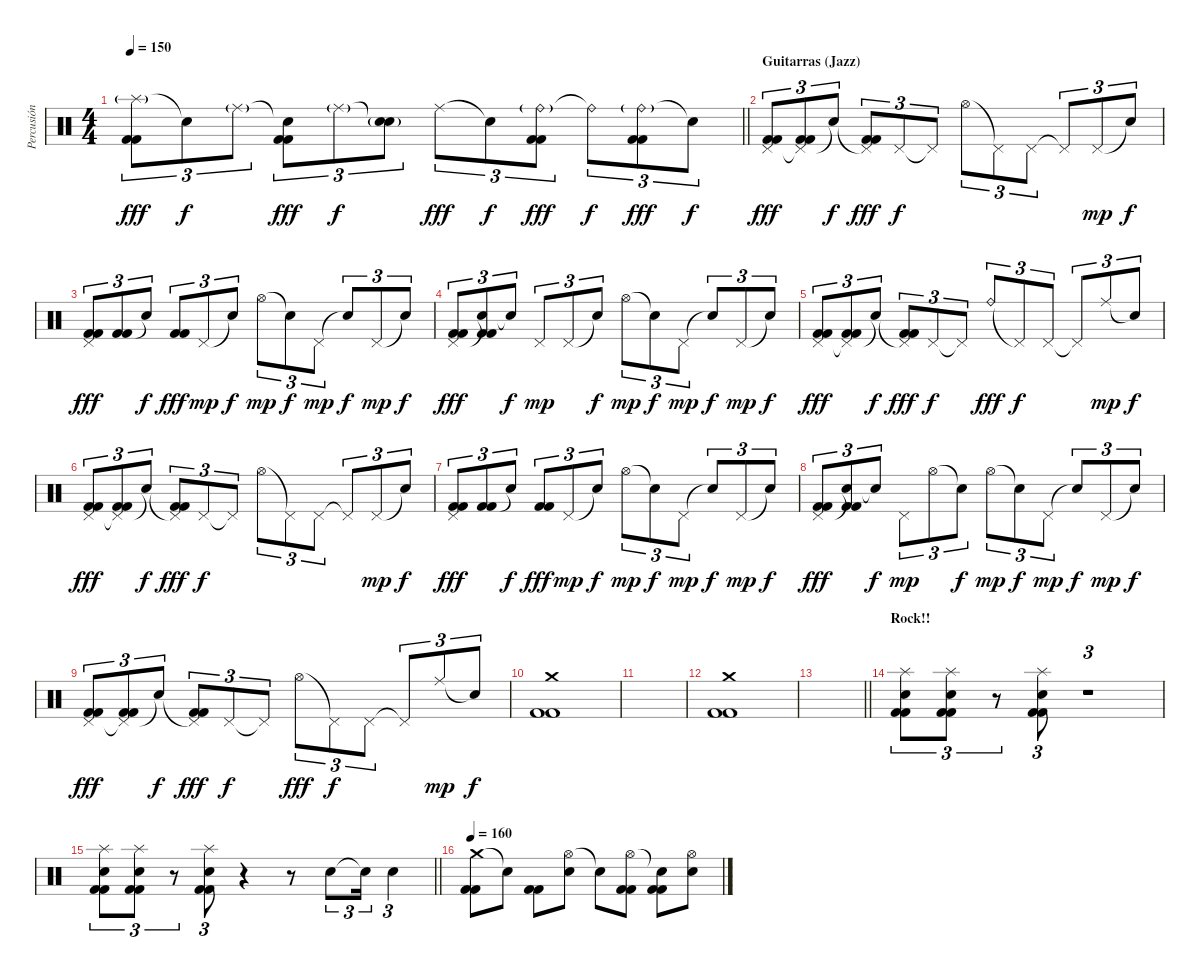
\track ("Percusión" "Percusión") {instrument percussion}
\staff {score}
\articulation defaults
\ts (4 4)
\tempo 150
\clef neutral
\barLineRight lightlight
\ks c
("Splash (hit)"{g} "Kick (hit) 2" "Kick (hit) 2").8{tu (3 2) dy fff} "Snare (hit)"{t}.8{tu (3 2) dy f} "Ride (middle)"{g}.8{tu (3 2)} ("Snare (hit)"{t} "Kick (hit) 2" "Kick (hit) 2").8{tu (3 2) dy fff} "Ride (middle)"{g}.8{tu (3 2) dy f} ("Snare (hit)"{t} "Snare (hit) 2"{g}).8{tu (3 2)} "Ride (middle)".8{tu (3 2) dy fff} "Snare (hit)"{t}.8{tu (3 2) dy f} ("Ride (bell)"{g} "Kick (hit) 2" "Kick (hit) 2").8{tu (3 2) dy fff} "Ride (bell)"{t}.8{tu (3 2) dy f} ("Ride (bell)"{g} "Kick (hit) 2" "Kick (hit) 2").8{tu (3 2) dy fff} "Snare (hit)"{t}.8{tu (3 2) dy f} |
\section ("" "Guitarras (Jazz)")
("Pedal Hi-Hat (hit)" "Kick (hit) 2" "Kick (hit) 2").8{tu (3 2) dy fff} ("Pedal Hi-Hat (hit)"{t} "Kick (hit) 2" "Kick (hit) 2").8{tu (3 2)} "Snare (hit)"{t}.8{tu (3 2) dy f} ("Pedal Hi-Hat (hit)"{t} "Kick (hit) 2" "Kick (hit) 2").8{tu (3 2) dy fff} "Pedal Hi-Hat (hit)".8{tu (3 2) dy f} "Pedal Hi-Hat (hit)"{t}.8{tu (3 2)} "Hi-Hat (open)".8{tu (3 2)} "Pedal Hi-Hat (hit)"{t}.8{tu (3 2)} "Pedal Hi-Hat (hit)".8{tu (3 2)} "Pedal Hi-Hat (hit)"{t}.8{tu (3 2)} "Pedal Hi-Hat (hit)".8{tu (3 2) dy mp} "Snare (hit)"{t}.8{tu (3 2) dy f} |
("Pedal Hi-Hat (hit)" "Kick (hit) 2" "Kick (hit) 2").8{tu (3 2) dy fff} ("Kick (hit) 2" "Kick (hit) 2").8{tu (3 2)} "Snare (hit)"{t}.8{tu (3 2) dy f} ("Kick (hit) 2" "Kick (hit) 2").8{tu (3 2) dy fff} "Pedal Hi-Hat (hit)".8{tu (3 2) dy mp} "Snare (hit)"{t}.8{tu (3 2) dy f} "Hi-Hat (open)".8{tu (3 2) dy mp} "Snare (hit)"{t}.8{tu (3 2) dy f} "Pedal Hi-Hat (hit)".8{tu (3 2) dy mp} "Snare (hit)"{t}.8{tu (3 2) dy f} "Pedal Hi-Hat (hit)".8{tu (3 2) dy mp} "Snare (hit)"{t}.8{tu (3 2) dy f} |
("Pedal Hi-Hat (hit)" "Kick (hit) 2" "Kick (hit) 2").8{tu (3 2) dy fff} ("Snare (hit)"{t} "Kick (hit) 2" "Kick (hit) 2").8{tu (3 2)} "Snare (hit)"{t}.8{tu (3 2) dy f} "Pedal Hi-Hat (hit)".8{tu (3 2) dy mp} "Pedal Hi-Hat (hit)".8{tu (3 2)} "Snare (hit)"{t}.8{tu (3 2) dy f} "Hi-Hat (open)".8{tu (3 2) dy mp} "Snare (hit)"{t}.8{tu (3 2) dy f} "Pedal Hi-Hat (hit)".8{tu (3 2) dy mp} "Snare (hit)"{t}.8{tu (3 2) dy f} "Pedal Hi-Hat (hit)".8{tu (3 2) dy mp} "Snare (hit)"{t}.8{tu (3 2) dy f} |
("Pedal Hi-Hat (hit)" "Kick (hit) 2" "Kick (hit) 2").8{tu (3 2) dy fff} ("Pedal Hi-Hat (hit)"{t} "Kick (hit) 2" "Kick (hit) 2").8{tu (3 2)} "Snare (hit)"{t}.8{tu (3 2) dy f} ("Pedal Hi-Hat (hit)"{t} "Kick (hit) 2" "Kick (hit) 2").8{tu (3 2) dy fff} "Pedal Hi-Hat (hit)".8{tu (3 2) dy f} "Pedal Hi-Hat (hit)"{t}.8{tu (3 2)} "Ride (bell)".8{tu (3 2) dy fff} "Pedal Hi-Hat (hit)"{t}.8{tu (3 2) dy f} "Pedal Hi-Hat (hit)".8{tu (3 2)} "Pedal Hi-Hat (hit)"{t}.8{tu (3 2)} "Ride (middle)".8{tu (3 2) dy mp} "Snare (hit)"{t}.8{tu (3 2) dy f} |
("Pedal Hi-Hat (hit)" "Kick (hit) 2" "Kick (hit) 2").8{tu (3 2) dy fff} ("Pedal Hi-Hat (hit)"{t} "Kick (hit) 2" "Kick (hit) 2").8{tu (3 2)} "Snare (hit)"{t}.8{tu (3 2) dy f} ("Pedal Hi-Hat (hit)"{t} "Kick (hit) 2" "Kick (hit) 2").8{tu (3 2) dy fff} "Pedal Hi-Hat (hit)".8{tu (3 2) dy f} "Pedal Hi-Hat (hit)"{t}.8{tu (3 2)} "Hi-Hat (open)".8{tu (3 2)} "Pedal Hi-Hat (hit)"{t}.8{tu (3 2)} "Pedal Hi-Hat (hit)".8{tu (3 2)} "Pedal Hi-Hat (hit)"{t}.8{tu (3 2)} "Pedal Hi-Hat (hit)".8{tu (3 2) dy mp} "Snare (hit)"{t}.8{tu (3 2) dy f} |
("Pedal Hi-Hat (hit)" "Kick (hit) 2" "Kick (hit) 2").8{tu (3 2) dy fff} ("Kick (hit) 2" "Kick (hit) 2").8{tu (3 2)} "Snare (hit)"{t}.8{tu (3 2) dy f} ("Kick (hit) 2" "Kick (hit) 2").8{tu (3 2) dy fff} "Pedal Hi-Hat (hit)".8{tu (3 2) dy mp} "Snare (hit)"{t}.8{tu (3 2) dy f} "Hi-Hat (open)".8{tu (3 2) dy mp} "Snare (hit)"{t}.8{tu (3 2) dy f} "Pedal Hi-Hat (hit)".8{tu (3 2) dy mp} "Snare (hit)"{t}.8{tu (3 2) dy f} "Pedal Hi-Hat (hit)".8{tu (3 2) dy mp} "Snare (hit)"{t}.8{tu (3 2) dy f} |
("Pedal Hi-Hat (hit)" "Kick (hit) 2" "Kick (hit) 2").8{tu (3 2) dy fff} ("Snare (hit)"{t} "Kick (hit) 2" "Kick (hit) 2").8{tu (3 2)} "Snare (hit)"{t}.8{tu (3 2) dy f} "Pedal Hi-Hat (hit)".8{tu (3 2) dy mp} "Hi-Hat (open)".8{tu (3 2)} "Snare (hit)"{t}.8{tu (3 2) dy f} "Hi-Hat (open)".8{tu (3 2) dy mp} "Snare (hit)"{t}.8{tu (3 2) dy f} "Pedal Hi-Hat (hit)".8{tu (3 2) dy mp} "Snare (hit)"{t}.8{tu (3 2) dy f} "Pedal Hi-Hat (hit)".8{tu (3 2) dy mp} "Snare (hit)"{t}.8{tu (3 2) dy f} |
("Pedal Hi-Hat (hit)" "Kick (hit) 2" "Kick (hit) 2").8{tu (3 2) dy fff} ("Pedal Hi-Hat (hit)"{t} "Kick (hit) 2" "Kick (hit) 2").8{tu (3 2)} "Snare (hit)"{t}.8{tu (3 2) dy f} ("Pedal Hi-Hat (hit)"{t} "Kick (hit) 2" "Kick (hit) 2").8{tu (3 2) dy fff} "Pedal Hi-Hat (hit)".8{tu (3 2) dy f} "Pedal Hi-Hat (hit)"{t}.8{tu (3 2)} "Hi-Hat (open)".8{tu (3 2) dy fff} "Pedal Hi-Hat (hit)"{t}.8{tu (3 2) dy f} "Pedal Hi-Hat (hit)".8{tu (3 2)} "Pedal Hi-Hat (hit)"{t}.8{tu (3 2)} "Ride (middle)".8{tu (3 2) dy mp} "Snare (hit)"{t}.8{tu (3 2) dy f} |
("Crash medium (hit)" "Kick (hit) 2" "Kick (hit) 2").1 |
|
("Crash medium (hit)" "Kick (hit) 2" "Kick (hit) 2").1 |
\barLineRight lightlight
|
\section ("" "Rock!!")
("Splash (hit)" "Electric Snare (hit)" "Kick (hit) 2" "Kick (hit) 2").8{tu (3 2)} ("Splash (hit)" "Electric Snare (hit)" "Kick (hit) 2" "Kick (hit) 2").8{tu (3 2)} r.8{tu (3 2)} ("Splash (hit)" "Electric Snare (hit)" "Kick (hit) 2" "Kick (hit) 2").8{tu (3 2)} r.1{tu (3 2)} |
\barLineRight lightlight
("Splash (hit)" "Electric Snare (hit)" "Kick (hit) 2" "Kick (hit) 2").8{tu (3 2)} ("Splash (hit)" "Electric Snare (hit)" "Kick (hit) 2" "Kick (hit) 2").8{tu (3 2)} r.8{tu (3 2)} ("Splash (hit)" "Electric Snare (hit)" "Kick (hit) 2" "Kick (hit) 2").8{tu (3 2)} r.4 r.8 "Electric Snare (hit)".8{tu (3 2)} "Snare (hit)"{t}.16{tu (3 2)} "Electric Snare (hit)".4{tu (3 2)} |
\tempo 160
("Crash medium (hit)" "Kick (hit) 2" "Kick (hit) 2").8 "Snare (hit)"{t}.8 ("Kick (hit) 2" "Kick (hit) 2").8 ("Hi-Hat (open)" "Electric Snare (hit)").8 "Snare (hit)"{t}.8 ("Hi-Hat (open)" "Kick (hit) 2" "Kick (hit) 2").8 ("Snare (hit)"{t} "Kick (hit) 2" "Kick (hit) 2").8 ("Hi-Hat (open)" "Electric Snare (hit)").8
